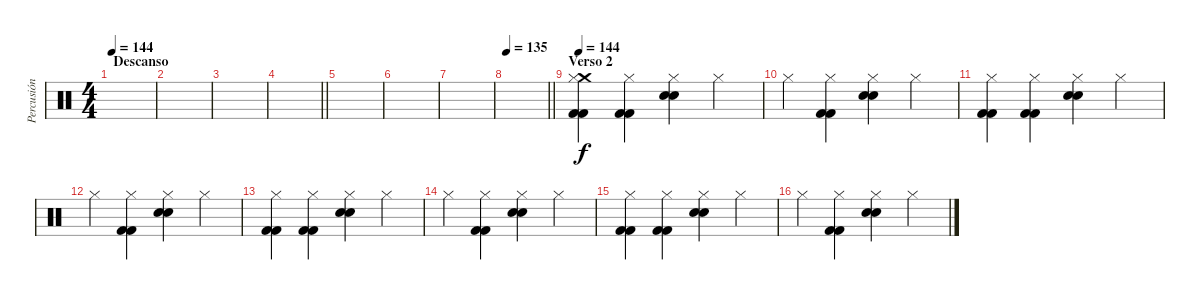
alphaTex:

\track ("Percusión" "Percusión") {instrument percussion}
\staff {score}
\articulation defaults
\ts (4 4)
\section ("" "Descanso")
\tempo 144
\clef neutral
\ks c
|
|
|
\barLineRight lightlight
|
|
|
|
\tempo 135
\barLineRight lightlight
|
\section ("" "Verso 2")
\tempo 144
("Crash medium (hit)" "Hi-Hat (closed)" "Kick (hit) 2" "Kick (hit) 2").4 ("Hi-Hat (closed)" "Kick (hit) 2" "Kick (hit) 2").4 ("Hi-Hat (closed)" "Electric Snare (hit)" "Electric Snare (hit)").4 "Hi-Hat (closed)".4 |
"Hi-Hat (closed)".4 ("Hi-Hat (closed)" "Kick (hit) 2" "Kick (hit) 2").4 ("Hi-Hat (closed)" "Electric Snare (hit)" "Electric Snare (hit)").4 "Hi-Hat (closed)".4 |
("Hi-Hat (closed)" "Kick (hit) 2" "Kick (hit) 2").4 ("Hi-Hat (closed)" "Kick (hit) 2" "Kick (hit) 2").4 ("Hi-Hat (closed)" "Electric Snare (hit)" "Electric Snare (hit)").4 "Hi-Hat (closed)".4 |
"Hi-Hat (closed)".4 ("Hi-Hat (closed)" "Kick (hit) 2" "Kick (hit) 2").4 ("Hi-Hat (closed)" "Electric Snare (hit)" "Electric Snare (hit)").4 "Hi-Hat (closed)".4 |
("Hi-Hat (closed)" "Kick (hit) 2" "Kick (hit) 2").4 ("Hi-Hat (closed)" "Kick (hit) 2" "Kick (hit) 2").4 ("Hi-Hat (closed)" "Electric Snare (hit)" "Electric Snare (hit)").4 "Hi-Hat (closed)".4 |
"Hi-Hat (closed)".4 ("Hi-Hat (closed)" "Kick (hit) 2" "Kick (hit) 2").4 ("Hi-Hat (closed)" "Electric Snare (hit)" "Electric Snare (hit)").4 "Hi-Hat (closed)".4 |
("Hi-Hat (closed)" "Kick (hit) 2" "Kick (hit) 2").4 ("Hi-Hat (closed)" "Kick (hit) 2" "Kick (hit) 2").4 ("Hi-Hat (closed)" "Electric Snare (hit)" "Electric Snare (hit)").4 "Hi-Hat (closed)".4 |
"Hi-Hat (closed)".4 ("Hi-Hat (closed)" "Kick (hit) 2" "Kick (hit) 2").4 ("Hi-Hat (closed)" "Electric Snare (hit)" "Electric Snare (hit)").4 "Hi-Hat (closed)".4
